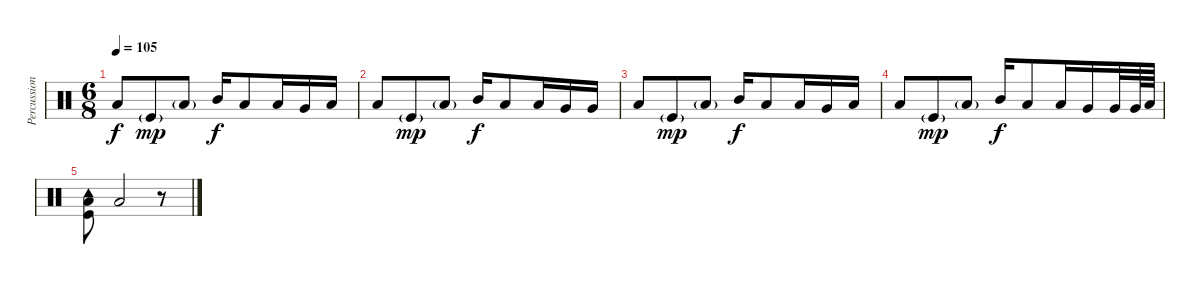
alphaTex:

\track ("Percussions" "Percussion") {instrument percussion}
\staff {score}
\articulation defaults
\ts (6 8)
\tempo 105
\clef neutral
\ks c "Low Floor Tom (hit)".8{dy f} "Kick (hit)"{g}.8{dy mp} "Low Floor Tom (hit)"{g}.8 "Mid Tom (hit)".16{dy f} "Low Tom (hit)".8 "Low Tom (hit)".16 "Very Low Tom (hit)".16 "Low Tom (hit)".16
|
"Low Floor Tom (hit)".8 "Kick (hit)"{g}.8{dy mp} "Low Floor Tom (hit)"{g}.8 "Mid Tom (hit)".16{dy f} "Low Tom (hit)".8 "Low Tom (hit)".16 "Very Low Tom (hit)".16 "Very Low Tom (hit)".16 |
"Low Floor Tom (hit)".8 "Kick (hit)"{g}.8{dy mp} "Low Floor Tom (hit)"{g}.8 "Mid Tom (hit)".16{dy f} "Low Tom (hit)".8 "Low Tom (hit)".16 "Very Low Tom (hit)".16 "Low Tom (hit)".16 |
"Low Floor Tom (hit)".8 "Kick (hit)"{g}.8{dy mp} "Low Floor Tom (hit)"{g}.8 "Mid Tom (hit)".16{dy f} "Low Tom (hit)".8 "Low Tom (hit)".16 "Very Low Tom (hit)".16 "Very Low Tom (hit)".32 "Very Low Tom (hit)".64 "Low Floor Tom (hit)".64 |
("Tambourine (hit)" "Kick (hit)" "Low Floor Tom (hit)").8 "Low Floor Tom (hit)".2 r.8
